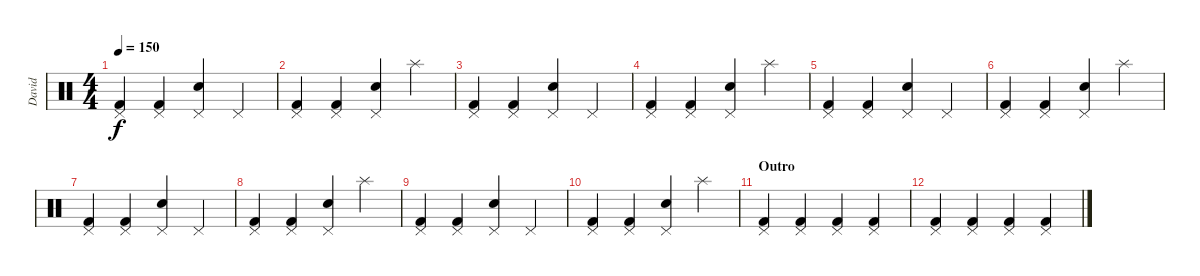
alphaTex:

\track ("David" "David") {instrument percussion}
\staff {score}
\articulation defaults
\ts (4 4)
\tempo 150
\clef neutral
\ks c
("Pedal Hi-Hat (hit)" "Kick (hit) 2").4{dy f} ("Pedal Hi-Hat (hit)" "Kick (hit) 2").4 ("Pedal Hi-Hat (hit)" "Hand Clap (hit)").4 "Pedal Hi-Hat (hit)".4 |
("Pedal Hi-Hat (hit)" "Kick (hit) 2").4 ("Pedal Hi-Hat (hit)" "Kick (hit) 2").4 ("Pedal Hi-Hat (hit)" "Hand Clap (hit)").4 "Splash (hit)".4 |
("Pedal Hi-Hat (hit)" "Kick (hit) 2").4 ("Pedal Hi-Hat (hit)" "Kick (hit) 2").4 ("Pedal Hi-Hat (hit)" "Hand Clap (hit)").4 "Pedal Hi-Hat (hit)".4 |
("Pedal Hi-Hat (hit)" "Kick (hit) 2").4 ("Pedal Hi-Hat (hit)" "Kick (hit) 2").4 ("Pedal Hi-Hat (hit)" "Hand Clap (hit)").4 "Splash (hit)".4 |
("Pedal Hi-Hat (hit)" "Kick (hit) 2").4 ("Pedal Hi-Hat (hit)" "Kick (hit) 2").4 ("Pedal Hi-Hat (hit)" "Hand Clap (hit)").4 "Pedal Hi-Hat (hit)".4 |
("Pedal Hi-Hat (hit)" "Kick (hit) 2").4 ("Pedal Hi-Hat (hit)" "Kick (hit) 2").4 ("Pedal Hi-Hat (hit)" "Hand Clap (hit)").4 "Splash (hit)".4 |
("Pedal Hi-Hat (hit)" "Kick (hit) 2").4 ("Pedal Hi-Hat (hit)" "Kick (hit) 2").4 ("Pedal Hi-Hat (hit)" "Hand Clap (hit)").4 "Pedal Hi-Hat (hit)".4 |
("Pedal Hi-Hat (hit)" "Kick (hit) 2").4 ("Pedal Hi-Hat (hit)" "Kick (hit) 2").4 ("Pedal Hi-Hat (hit)" "Hand Clap (hit)").4 "Splash (hit)".4 |
("Pedal Hi-Hat (hit)" "Kick (hit) 2").4 ("Pedal Hi-Hat (hit)" "Kick (hit) 2").4 ("Pedal Hi-Hat (hit)" "Hand Clap (hit)").4 "Pedal Hi-Hat (hit)".4 |
("Pedal Hi-Hat (hit)" "Kick (hit) 2").4 ("Pedal Hi-Hat (hit)" "Kick (hit) 2").4 ("Pedal Hi-Hat (hit)" "Hand Clap (hit)").4 "Splash (hit)".4 |
\section ("" "Outro")
("Pedal Hi-Hat (hit)" "Kick (hit) 2").4 ("Pedal Hi-Hat (hit)" "Kick (hit) 2").4 ("Pedal Hi-Hat (hit)" "Kick (hit) 2").4 ("Pedal Hi-Hat (hit)" "Kick (hit) 2").4 |
("Pedal Hi-Hat (hit)" "Kick (hit) 2").4 ("Pedal Hi-Hat (hit)" "Kick (hit) 2").4 ("Pedal Hi-Hat (hit)" "Kick (hit) 2").4 ("Pedal Hi-Hat (hit)" "Kick (hit) 2").4
